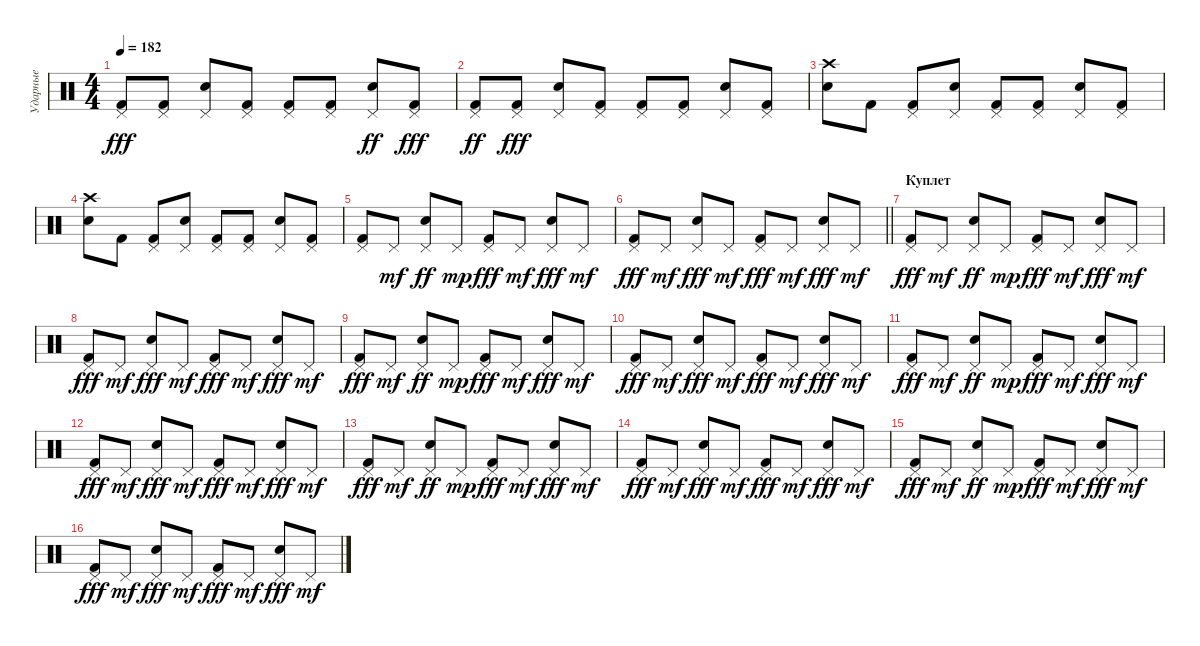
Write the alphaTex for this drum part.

\track ("Ударные" "Ударные") {instrument percussion}
\staff {score}
\articulation defaults
\ts (4 4)
\tempo 182
\clef neutral
\ks c
("Pedal Hi-Hat (hit)" "Kick (hit) 2").8{dy fff} ("Pedal Hi-Hat (hit)" "Kick (hit) 2").8 ("Pedal Hi-Hat (hit)" "Electric Snare (hit)").8 ("Pedal Hi-Hat (hit)" "Kick (hit) 2").8 ("Pedal Hi-Hat (hit)" "Kick (hit) 2").8 ("Pedal Hi-Hat (hit)" "Kick (hit) 2").8 ("Electric Snare (hit)" "Pedal Hi-Hat (hit)").8{dy ff} ("Pedal Hi-Hat (hit)" "Kick (hit) 2").8{dy fff} |
("Kick (hit) 2" "Pedal Hi-Hat (hit)").8{dy ff} ("Pedal Hi-Hat (hit)" "Kick (hit) 2").8{dy fff} ("Pedal Hi-Hat (hit)" "Electric Snare (hit)").8 ("Pedal Hi-Hat (hit)" "Kick (hit) 2").8 ("Pedal Hi-Hat (hit)" "Kick (hit) 2").8 ("Pedal Hi-Hat (hit)" "Kick (hit) 2").8 ("Pedal Hi-Hat (hit)" "Electric Snare (hit)").8 ("Pedal Hi-Hat (hit)" "Kick (hit) 2").8 |
("Crash high (hit)" "Electric Snare (hit)").8 "Kick (hit) 2".8 ("Pedal Hi-Hat (hit)" "Kick (hit) 2").8 ("Pedal Hi-Hat (hit)" "Electric Snare (hit)").8 ("Kick (hit) 2" "Pedal Hi-Hat (hit)").8 ("Pedal Hi-Hat (hit)" "Kick (hit) 2").8 ("Pedal Hi-Hat (hit)" "Electric Snare (hit)").8 ("Pedal Hi-Hat (hit)" "Kick (hit) 2").8 |
("Crash high (hit)" "Electric Snare (hit)").8 "Kick (hit) 2".8 ("Pedal Hi-Hat (hit)" "Kick (hit) 2").8 ("Pedal Hi-Hat (hit)" "Electric Snare (hit)").8 ("Kick (hit) 2" "Pedal Hi-Hat (hit)").8 ("Pedal Hi-Hat (hit)" "Kick (hit) 2").8 ("Pedal Hi-Hat (hit)" "Electric Snare (hit)").8 ("Pedal Hi-Hat (hit)" "Kick (hit) 2").8 |
("Pedal Hi-Hat (hit)" "Kick (hit) 2").8 "Pedal Hi-Hat (hit)".8{dy mf} ("Electric Snare (hit)" "Pedal Hi-Hat (hit)").8{dy ff} "Pedal Hi-Hat (hit)".8{dy mp} ("Pedal Hi-Hat (hit)" "Kick (hit) 2").8{dy fff} "Pedal Hi-Hat (hit)".8{dy mf} ("Pedal Hi-Hat (hit)" "Electric Snare (hit)").8{dy fff} "Pedal Hi-Hat (hit)".8{dy mf} |
\barLineRight lightlight
("Pedal Hi-Hat (hit)" "Kick (hit) 2").8{dy fff} "Pedal Hi-Hat (hit)".8{dy mf} ("Pedal Hi-Hat (hit)" "Electric Snare (hit)").8{dy fff} "Pedal Hi-Hat (hit)".8{dy mf} ("Pedal Hi-Hat (hit)" "Kick (hit) 2").8{dy fff} "Pedal Hi-Hat (hit)".8{dy mf} ("Pedal Hi-Hat (hit)" "Electric Snare (hit)").8{dy fff} "Pedal Hi-Hat (hit)".8{dy mf} |
\section ("" "Куплет")
("Pedal Hi-Hat (hit)" "Kick (hit) 2").8{dy fff} "Pedal Hi-Hat (hit)".8{dy mf} ("Electric Snare (hit)" "Pedal Hi-Hat (hit)").8{dy ff} "Pedal Hi-Hat (hit)".8{dy mp} ("Pedal Hi-Hat (hit)" "Kick (hit) 2").8{dy fff} "Pedal Hi-Hat (hit)".8{dy mf} ("Pedal Hi-Hat (hit)" "Electric Snare (hit)").8{dy fff} "Pedal Hi-Hat (hit)".8{dy mf} |
("Pedal Hi-Hat (hit)" "Kick (hit) 2").8{dy fff} "Pedal Hi-Hat (hit)".8{dy mf} ("Pedal Hi-Hat (hit)" "Electric Snare (hit)").8{dy fff} "Pedal Hi-Hat (hit)".8{dy mf} ("Pedal Hi-Hat (hit)" "Kick (hit) 2").8{dy fff} "Pedal Hi-Hat (hit)".8{dy mf} ("Pedal Hi-Hat (hit)" "Electric Snare (hit)").8{dy fff} "Pedal Hi-Hat (hit)".8{dy mf} |
("Pedal Hi-Hat (hit)" "Kick (hit) 2").8{dy fff} "Pedal Hi-Hat (hit)".8{dy mf} ("Electric Snare (hit)" "Pedal Hi-Hat (hit)").8{dy ff} "Pedal Hi-Hat (hit)".8{dy mp} ("Pedal Hi-Hat (hit)" "Kick (hit) 2").8{dy fff} "Pedal Hi-Hat (hit)".8{dy mf} ("Pedal Hi-Hat (hit)" "Electric Snare (hit)").8{dy fff} "Pedal Hi-Hat (hit)".8{dy mf} |
("Pedal Hi-Hat (hit)" "Kick (hit) 2").8{dy fff} "Pedal Hi-Hat (hit)".8{dy mf} ("Pedal Hi-Hat (hit)" "Electric Snare (hit)").8{dy fff} "Pedal Hi-Hat (hit)".8{dy mf} ("Pedal Hi-Hat (hit)" "Kick (hit) 2").8{dy fff} "Pedal Hi-Hat (hit)".8{dy mf} ("Pedal Hi-Hat (hit)" "Electric Snare (hit)").8{dy fff} "Pedal Hi-Hat (hit)".8{dy mf} |
("Pedal Hi-Hat (hit)" "Kick (hit) 2").8{dy fff} "Pedal Hi-Hat (hit)".8{dy mf} ("Electric Snare (hit)" "Pedal Hi-Hat (hit)").8{dy ff} "Pedal Hi-Hat (hit)".8{dy mp} ("Pedal Hi-Hat (hit)" "Kick (hit) 2").8{dy fff} "Pedal Hi-Hat (hit)".8{dy mf} ("Pedal Hi-Hat (hit)" "Electric Snare (hit)").8{dy fff} "Pedal Hi-Hat (hit)".8{dy mf} |
("Pedal Hi-Hat (hit)" "Kick (hit) 2").8{dy fff} "Pedal Hi-Hat (hit)".8{dy mf} ("Pedal Hi-Hat (hit)" "Electric Snare (hit)").8{dy fff} "Pedal Hi-Hat (hit)".8{dy mf} ("Pedal Hi-Hat (hit)" "Kick (hit) 2").8{dy fff} "Pedal Hi-Hat (hit)".8{dy mf} ("Pedal Hi-Hat (hit)" "Electric Snare (hit)").8{dy fff} "Pedal Hi-Hat (hit)".8{dy mf} |
("Pedal Hi-Hat (hit)" "Kick (hit) 2").8{dy fff} "Pedal Hi-Hat (hit)".8{dy mf} ("Electric Snare (hit)" "Pedal Hi-Hat (hit)").8{dy ff} "Pedal Hi-Hat (hit)".8{dy mp} ("Pedal Hi-Hat (hit)" "Kick (hit) 2").8{dy fff} "Pedal Hi-Hat (hit)".8{dy mf} ("Pedal Hi-Hat (hit)" "Electric Snare (hit)").8{dy fff} "Pedal Hi-Hat (hit)".8{dy mf} |
("Pedal Hi-Hat (hit)" "Kick (hit) 2").8{dy fff} "Pedal Hi-Hat (hit)".8{dy mf} ("Pedal Hi-Hat (hit)" "Electric Snare (hit)").8{dy fff} "Pedal Hi-Hat (hit)".8{dy mf} ("Pedal Hi-Hat (hit)" "Kick (hit) 2").8{dy fff} "Pedal Hi-Hat (hit)".8{dy mf} ("Pedal Hi-Hat (hit)" "Electric Snare (hit)").8{dy fff} "Pedal Hi-Hat (hit)".8{dy mf} |
("Pedal Hi-Hat (hit)" "Kick (hit) 2").8{dy fff} "Pedal Hi-Hat (hit)".8{dy mf} ("Electric Snare (hit)" "Pedal Hi-Hat (hit)").8{dy ff} "Pedal Hi-Hat (hit)".8{dy mp} ("Pedal Hi-Hat (hit)" "Kick (hit) 2").8{dy fff} "Pedal Hi-Hat (hit)".8{dy mf} ("Pedal Hi-Hat (hit)" "Electric Snare (hit)").8{dy fff} "Pedal Hi-Hat (hit)".8{dy mf} |
("Pedal Hi-Hat (hit)" "Kick (hit) 2").8{dy fff} "Pedal Hi-Hat (hit)".8{dy mf} ("Pedal Hi-Hat (hit)" "Electric Snare (hit)").8{dy fff} "Pedal Hi-Hat (hit)".8{dy mf} ("Pedal Hi-Hat (hit)" "Kick (hit) 2").8{dy fff} "Pedal Hi-Hat (hit)".8{dy mf} ("Pedal Hi-Hat (hit)" "Electric Snare (hit)").8{dy fff} "Pedal Hi-Hat (hit)".8{dy mf}
